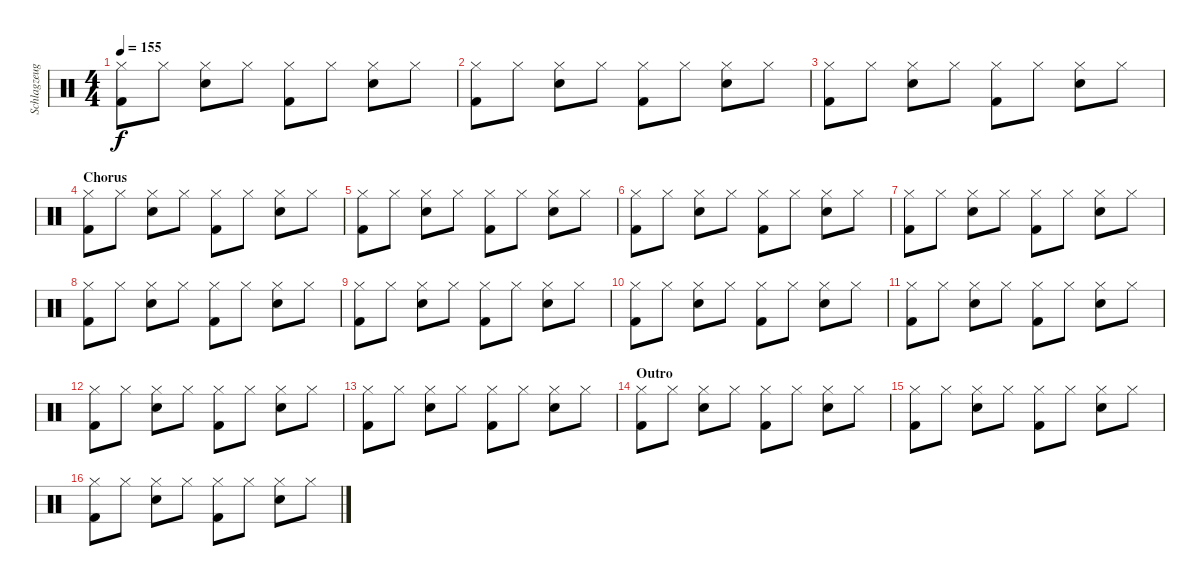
\track ("Schlagzeug - Bela B." "Schlagzeug") {instrument percussion}
\staff {score}
\articulation defaults
\ts (4 4)
\tempo 155
\clef neutral
\ks c
("Hi-Hat (closed)" "Kick (hit) 2").8{dy f} "Hi-Hat (closed)".8 ("Hi-Hat (closed)" "Snare (hit) 2").8 "Hi-Hat (closed)".8 ("Hi-Hat (closed)" "Kick (hit) 2").8 "Hi-Hat (closed)".8 ("Hi-Hat (closed)" "Snare (hit) 2").8 "Hi-Hat (closed)".8 |
("Hi-Hat (closed)" "Kick (hit) 2").8 "Hi-Hat (closed)".8 ("Hi-Hat (closed)" "Snare (hit) 2").8 "Hi-Hat (closed)".8 ("Hi-Hat (closed)" "Kick (hit) 2").8 "Hi-Hat (closed)".8 ("Hi-Hat (closed)" "Snare (hit) 2").8 "Hi-Hat (closed)".8 |
("Hi-Hat (closed)" "Kick (hit) 2").8 "Hi-Hat (closed)".8 ("Hi-Hat (closed)" "Snare (hit) 2").8 "Hi-Hat (closed)".8 ("Hi-Hat (closed)" "Kick (hit) 2").8 "Hi-Hat (closed)".8 ("Hi-Hat (closed)" "Snare (hit) 2").8 "Hi-Hat (closed)".8 |
\section ("" "Chorus")
("Hi-Hat (closed)" "Kick (hit) 2").8 "Hi-Hat (closed)".8 ("Hi-Hat (closed)" "Snare (hit) 2").8 "Hi-Hat (closed)".8 ("Hi-Hat (closed)" "Kick (hit) 2").8 "Hi-Hat (closed)".8 ("Hi-Hat (closed)" "Snare (hit) 2").8 "Hi-Hat (closed)".8 |
("Hi-Hat (closed)" "Kick (hit) 2").8 "Hi-Hat (closed)".8 ("Hi-Hat (closed)" "Snare (hit) 2").8 "Hi-Hat (closed)".8 ("Hi-Hat (closed)" "Kick (hit) 2").8 "Hi-Hat (closed)".8 ("Hi-Hat (closed)" "Snare (hit) 2").8 "Hi-Hat (closed)".8 |
("Hi-Hat (closed)" "Kick (hit) 2").8 "Hi-Hat (closed)".8 ("Hi-Hat (closed)" "Snare (hit) 2").8 "Hi-Hat (closed)".8 ("Hi-Hat (closed)" "Kick (hit) 2").8 "Hi-Hat (closed)".8 ("Hi-Hat (closed)" "Snare (hit) 2").8 "Hi-Hat (closed)".8 |
("Hi-Hat (closed)" "Kick (hit) 2").8 "Hi-Hat (closed)".8 ("Hi-Hat (closed)" "Snare (hit) 2").8 "Hi-Hat (closed)".8 ("Hi-Hat (closed)" "Kick (hit) 2").8 "Hi-Hat (closed)".8 ("Hi-Hat (closed)" "Snare (hit) 2").8 "Hi-Hat (closed)".8 |
("Hi-Hat (closed)" "Kick (hit) 2").8 "Hi-Hat (closed)".8 ("Hi-Hat (closed)" "Snare (hit) 2").8 "Hi-Hat (closed)".8 ("Hi-Hat (closed)" "Kick (hit) 2").8 "Hi-Hat (closed)".8 ("Hi-Hat (closed)" "Snare (hit) 2").8 "Hi-Hat (closed)".8 |
("Hi-Hat (closed)" "Kick (hit) 2").8 "Hi-Hat (closed)".8 ("Hi-Hat (closed)" "Snare (hit) 2").8 "Hi-Hat (closed)".8 ("Hi-Hat (closed)" "Kick (hit) 2").8 "Hi-Hat (closed)".8 ("Hi-Hat (closed)" "Snare (hit) 2").8 "Hi-Hat (closed)".8 |
("Hi-Hat (closed)" "Kick (hit) 2").8 "Hi-Hat (closed)".8 ("Hi-Hat (closed)" "Snare (hit) 2").8 "Hi-Hat (closed)".8 ("Hi-Hat (closed)" "Kick (hit) 2").8 "Hi-Hat (closed)".8 ("Hi-Hat (closed)" "Snare (hit) 2").8 "Hi-Hat (closed)".8 |
("Hi-Hat (closed)" "Kick (hit) 2").8 "Hi-Hat (closed)".8 ("Hi-Hat (closed)" "Snare (hit) 2").8 "Hi-Hat (closed)".8 ("Hi-Hat (closed)" "Kick (hit) 2").8 "Hi-Hat (closed)".8 ("Hi-Hat (closed)" "Snare (hit) 2").8 "Hi-Hat (closed)".8 |
("Hi-Hat (closed)" "Kick (hit) 2").8 "Hi-Hat (closed)".8 ("Hi-Hat (closed)" "Snare (hit) 2").8 "Hi-Hat (closed)".8 ("Hi-Hat (closed)" "Kick (hit) 2").8 "Hi-Hat (closed)".8 ("Hi-Hat (closed)" "Snare (hit) 2").8 "Hi-Hat (closed)".8 |
("Hi-Hat (closed)" "Kick (hit) 2").8 "Hi-Hat (closed)".8 ("Hi-Hat (closed)" "Snare (hit) 2").8 "Hi-Hat (closed)".8 ("Hi-Hat (closed)" "Kick (hit) 2").8 "Hi-Hat (closed)".8 ("Hi-Hat (closed)" "Snare (hit) 2").8 "Hi-Hat (closed)".8 |
\section ("" "Outro")
("Hi-Hat (closed)" "Kick (hit) 2").8 "Hi-Hat (closed)".8 ("Hi-Hat (closed)" "Snare (hit) 2").8 "Hi-Hat (closed)".8 ("Hi-Hat (closed)" "Kick (hit) 2").8 "Hi-Hat (closed)".8 ("Hi-Hat (closed)" "Snare (hit) 2").8 "Hi-Hat (closed)".8 |
("Hi-Hat (closed)" "Kick (hit) 2").8 "Hi-Hat (closed)".8 ("Hi-Hat (closed)" "Snare (hit) 2").8 "Hi-Hat (closed)".8 ("Hi-Hat (closed)" "Kick (hit) 2").8 "Hi-Hat (closed)".8 ("Hi-Hat (closed)" "Snare (hit) 2").8 "Hi-Hat (closed)".8 |
("Hi-Hat (closed)" "Kick (hit) 2").8 "Hi-Hat (closed)".8 ("Hi-Hat (closed)" "Snare (hit) 2").8 "Hi-Hat (closed)".8 ("Hi-Hat (closed)" "Kick (hit) 2").8 "Hi-Hat (closed)".8 ("Hi-Hat (closed)" "Snare (hit) 2").8 "Hi-Hat (closed)".8
